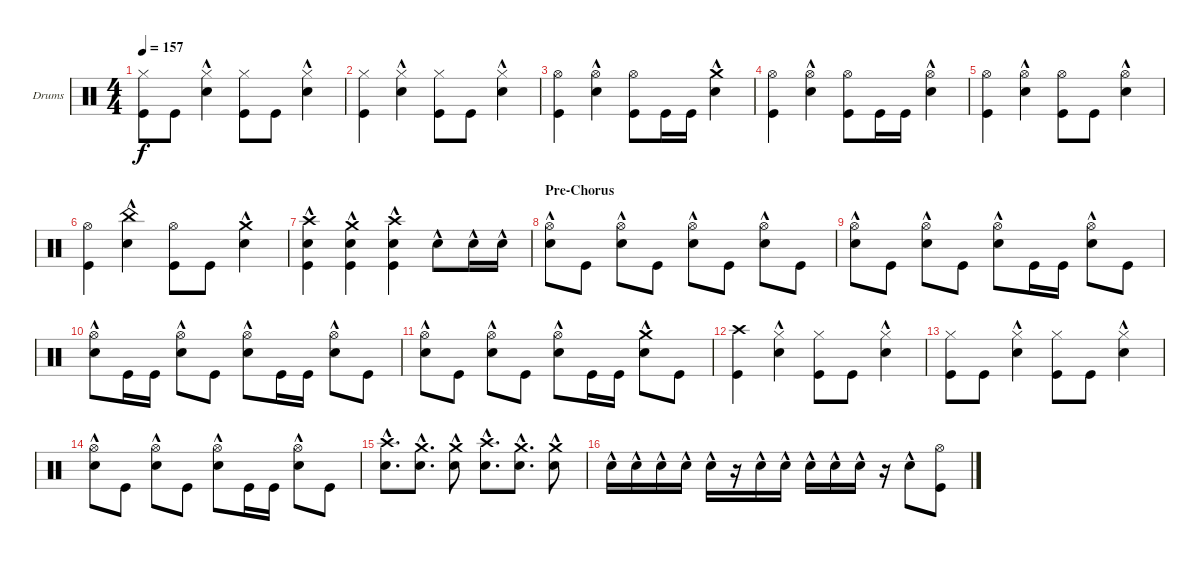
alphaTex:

\defaultSystemsLayout 4
\bracketExtendMode groupsimilarinstruments
\firstSystemTrackNameOrientation horizontal
\otherSystemsTrackNameOrientation horizontal
\track ("Drumkit - Natsu" "Drums") {instrument percussion}
\staff {score}
\articulation defaults
\ts (4 4)
\tempo 157
\clef neutral
\ks c
("Kick (hit)" "Hi-Hat (closed)").8{dy f} "Kick (hit)".8 ("Snare (hit) 2"{hac} "Hi-Hat (closed)").4 ("Kick (hit)" "Hi-Hat (closed)").8 "Kick (hit)".8 ("Snare (hit) 2"{hac} "Hi-Hat (closed)").4 |
("Kick (hit)" "Hi-Hat (closed)").4 ("Snare (hit) 2"{hac} "Hi-Hat (closed)").4 ("Kick (hit)" "Hi-Hat (closed)").8 "Kick (hit)".8 ("Snare (hit) 2"{hac} "Hi-Hat (closed)").4 |
("Kick (hit)" "Hi-Hat (open)").4 ("Snare (hit) 2"{hac} "Hi-Hat (open)").4 ("Kick (hit)" "Hi-Hat (open)").8 "Kick (hit)".16 "Kick (hit)".16 ("Snare (hit) 2"{hac} "Crash medium (hit)"{hac}).4 |
("Kick (hit)" "Hi-Hat (open)").4 ("Snare (hit) 2"{hac} "Hi-Hat (open)").4 ("Kick (hit)" "Hi-Hat (open)").8 "Kick (hit)".16 "Kick (hit)".16 ("Snare (hit) 2"{hac} "Hi-Hat (open)").4 |
("Kick (hit)" "Hi-Hat (open)").4 ("Snare (hit) 2"{hac} "Hi-Hat (open)").4 ("Kick (hit)" "Hi-Hat (open)").8 "Kick (hit)".8 ("Snare (hit) 2"{hac} "Hi-Hat (open)").4 |
("Kick (hit)" "Hi-Hat (open)").4 ("Snare (hit) 2"{hac} "China (hit)"{hac}).4 ("Kick (hit)" "Hi-Hat (open)").8 "Kick (hit)".8 ("Snare (hit) 2"{hac} "Crash medium (hit)"{hac}).4 |
("Snare (hit) 2"{hac} "Kick (hit)" "Crash high (hit)").4 ("Kick (hit)" "Snare (hit) 2"{hac} "Crash medium (hit)"{hac}).4 ("Snare (hit) 2"{hac} "Kick (hit)" "Crash high (hit)").4 "Snare (hit) 2"{hac}.8 "Snare (hit) 2"{hac}.16 "Snare (hit) 2"{hac}.16 |
\section ("" "Pre-Chorus")
("Snare (hit) 2"{hac} "Hi-Hat (open)").8 "Kick (hit)".8 ("Snare (hit) 2"{hac} "Hi-Hat (open)").8 "Kick (hit)".8 ("Snare (hit) 2"{hac} "Hi-Hat (open)").8 "Kick (hit)".8 ("Snare (hit) 2"{hac} "Hi-Hat (open)").8 "Kick (hit)".8 |
("Snare (hit) 2"{hac} "Hi-Hat (open)").8 "Kick (hit)".8 ("Snare (hit) 2"{hac} "Hi-Hat (open)").8 "Kick (hit)".8 ("Snare (hit) 2"{hac} "Hi-Hat (open)").8 "Kick (hit)".16 "Kick (hit)".16 ("Snare (hit) 2"{hac} "Hi-Hat (open)").8 "Kick (hit)".8 |
("Snare (hit) 2"{hac} "Hi-Hat (open)").8 "Kick (hit)".16 "Kick (hit)".16 ("Snare (hit) 2"{hac} "Hi-Hat (open)").8 "Kick (hit)".8 ("Snare (hit) 2"{hac} "Hi-Hat (open)").8 "Kick (hit)".16 "Kick (hit)".16 ("Snare (hit) 2"{hac} "Hi-Hat (open)").8 "Kick (hit)".8 |
("Snare (hit) 2"{hac} "Hi-Hat (open)").8 "Kick (hit)".8 ("Snare (hit) 2"{hac} "Hi-Hat (open)").8 "Kick (hit)".8 ("Snare (hit) 2"{hac} "Hi-Hat (open)").8 "Kick (hit)".16 "Kick (hit)".16 ("Snare (hit) 2"{hac} "Crash medium (hit)"{hac}).8 "Kick (hit)".8 |
("Crash high (hit)" "Kick (hit)").4 ("Snare (hit) 2"{hac} "Hi-Hat (closed)").4 ("Kick (hit)" "Hi-Hat (closed)").8 "Kick (hit)".8 ("Snare (hit) 2"{hac} "Hi-Hat (closed)").4 |
("Kick (hit)" "Hi-Hat (closed)").8 "Kick (hit)".8 ("Snare (hit) 2"{hac} "Hi-Hat (closed)").4 ("Kick (hit)" "Hi-Hat (closed)").8 "Kick (hit)".8 ("Snare (hit) 2"{hac} "Hi-Hat (closed)").4 |
("Snare (hit) 2"{hac} "Hi-Hat (open)").8 "Kick (hit)".8 ("Snare (hit) 2"{hac} "Hi-Hat (open)").8 "Kick (hit)".8 ("Snare (hit) 2"{hac} "Hi-Hat (open)").8 "Kick (hit)".16 "Kick (hit)".16 ("Snare (hit) 2"{hac} "Hi-Hat (open)").8 "Kick (hit)".8 |
("Crash high (hit)" "Snare (hit) 2"{hac}).8{d} ("Crash medium (hit)"{hac} "Snare (hit) 2"{hac}).8{d} ("Crash medium (hit)"{hac} "Snare (hit) 2"{hac}).8 ("Crash high (hit)" "Snare (hit) 2"{hac}).8{d} ("Crash medium (hit)"{hac} "Snare (hit) 2"{hac}).8{d} ("Crash medium (hit)"{hac} "Snare (hit) 2"{hac}).8 |
"Snare (hit) 2"{hac}.16 "Snare (hit) 2"{hac}.16 "Snare (hit) 2"{hac}.16 "Snare (hit) 2"{hac}.16 "Snare (hit) 2"{hac}.16 r.16 "Snare (hit) 2"{hac}.16 "Snare (hit) 2"{hac}.16 "Snare (hit) 2"{hac}.16 "Snare (hit) 2"{hac}.16 "Snare (hit) 2"{hac}.16 r.16 "Snare (hit) 2"{hac}.8 ("Kick (hit)" "Hi-Hat (open)").8
